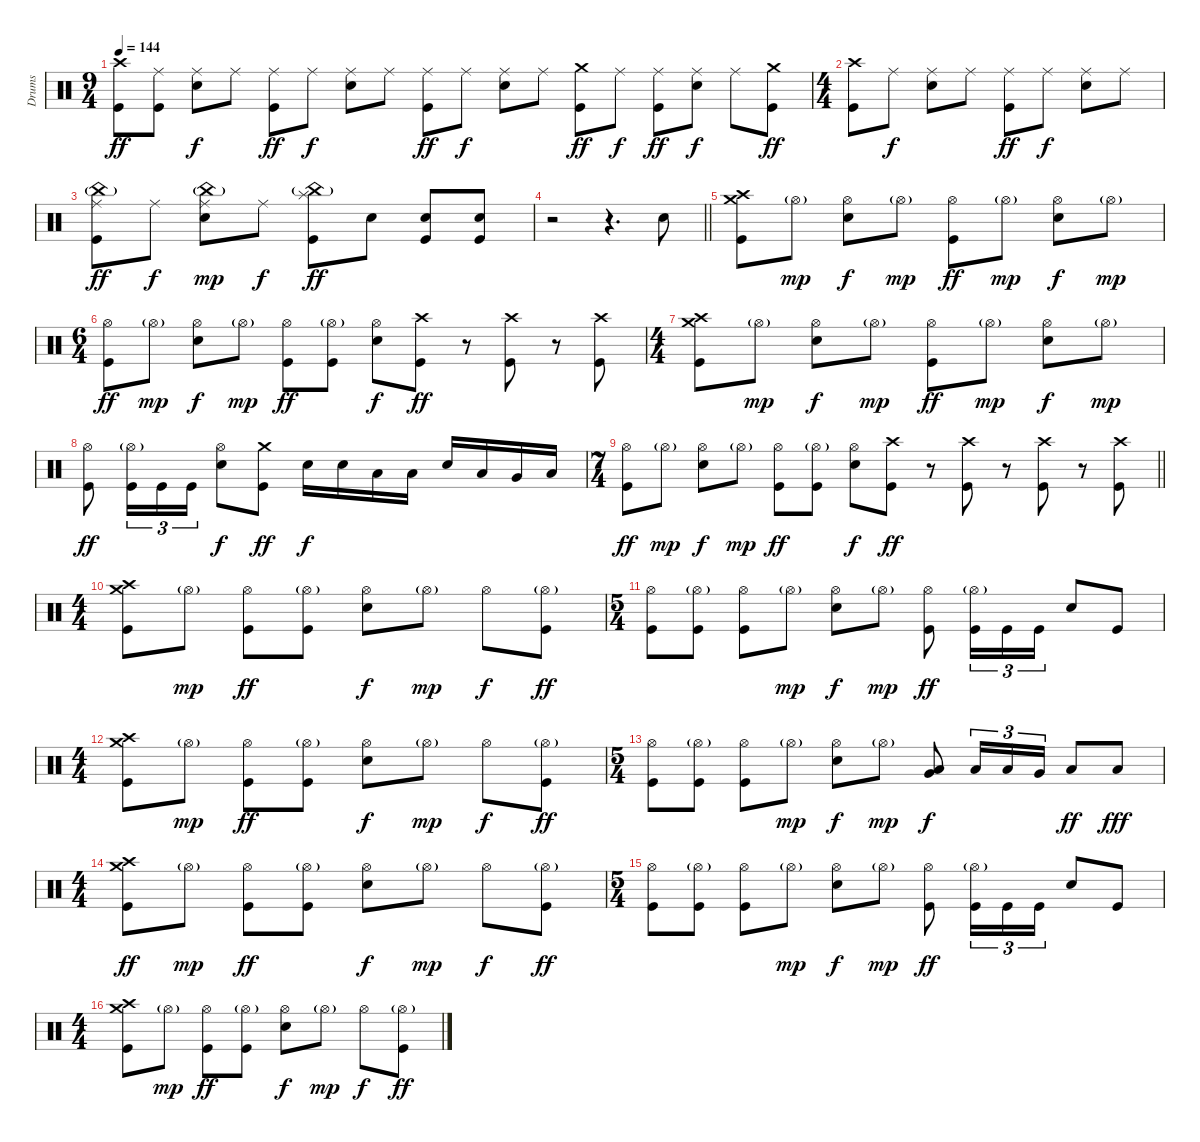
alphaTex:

\track ("Drums" "Drums") {instrument percussion}
\staff {score}
\articulation defaults
\ts (9 4)
\tempo 144
\clef neutral
\ks c
("Crash high (hit)" "Kick (hit)").8{dy ff} ("Ride (middle)" "Kick (hit)").8 ("Ride (middle)" "Snare (hit) 2").8{dy f} "Ride (middle)".8 ("Ride (middle)" "Kick (hit)").8{dy ff} "Ride (middle)".8{dy f} ("Ride (middle)" "Snare (hit) 2").8 "Ride (middle)".8 ("Ride (middle)" "Kick (hit)").8{dy ff} "Ride (middle)".8{dy f} ("Ride (middle)" "Snare (hit) 2").8 "Ride (middle)".8 ("Crash medium (hit)" "Kick (hit)").8{dy ff} "Ride (middle)".8{dy f} ("Ride (middle)" "Kick (hit)").8{dy ff} ("Ride (middle)" "Snare (hit) 2").8{dy f} "Ride (middle)".8 ("Crash medium (hit)" "Kick (hit)").8{dy ff} |
\ts (4 4)
("Crash high (hit)" "Kick (hit)").8 "Ride (middle)".8{dy f} ("Ride (middle)" "Snare (hit) 2").8 "Ride (middle)".8 ("Ride (middle)" "Kick (hit)").8{dy ff} "Ride (middle)".8{dy f} ("Ride (middle)" "Snare (hit) 2").8 "Ride (middle)".8 |
("Ride (middle)" "China (hit)"{g} "Kick (hit)").8{dy ff} "Ride (middle)".8{dy f} ("Ride (middle)" "China (hit)"{g} "Snare (hit) 2").8{dy mp} "Ride (middle)".8{dy f} ("Splash (hit)" "China (hit)"{g} "Kick (hit)").8{dy ff} "Snare (hit) 2".8 ("Snare (hit) 2" "Kick (hit)").8 ("Snare (hit) 2" "Kick (hit)").8 |
\barLineRight lightlight
r.2 r.4{d} "Snare (hit) 2".8 |
("Crash high (hit)" "Crash medium (hit)" "Kick (hit)").8 "Hi-Hat (open)"{g}.8{dy mp} ("Hi-Hat (open)" "Snare (hit) 2").8{dy f} "Hi-Hat (open)"{g}.8{dy mp} ("Hi-Hat (open)" "Kick (hit)").8{dy ff} "Hi-Hat (open)"{g}.8{dy mp} ("Hi-Hat (open)" "Snare (hit) 2").8{dy f} "Hi-Hat (open)"{g}.8{dy mp} |
\ts (6 4)
("Hi-Hat (open)" "Kick (hit)").8{dy ff} "Hi-Hat (open)"{g}.8{dy mp} ("Hi-Hat (open)" "Snare (hit) 2").8{dy f} "Hi-Hat (open)"{g}.8{dy mp} ("Hi-Hat (open)" "Kick (hit)").8{dy ff} ("Hi-Hat (open)"{g} "Kick (hit)").8 ("Hi-Hat (open)" "Snare (hit) 2").8{dy f} ("Crash high (hit)" "Kick (hit)").8{dy ff} r.8 ("Crash high (hit)" "Kick (hit)").8 r.8 ("Crash high (hit)" "Kick (hit)").8 |
\ts (4 4)
("Crash high (hit)" "Crash medium (hit)" "Kick (hit)").8 "Hi-Hat (open)"{g}.8{dy mp} ("Hi-Hat (open)" "Snare (hit) 2").8{dy f} "Hi-Hat (open)"{g}.8{dy mp} ("Hi-Hat (open)" "Kick (hit)").8{dy ff} "Hi-Hat (open)"{g}.8{dy mp} ("Hi-Hat (open)" "Snare (hit) 2").8{dy f} "Hi-Hat (open)"{g}.8{dy mp} |
("Hi-Hat (open)" "Kick (hit)").8{dy ff} ("Hi-Hat (open)"{g} "Kick (hit)").16{tu (3 2)} "Kick (hit)".16{tu (3 2)} "Kick (hit)".16{tu (3 2)} ("Hi-Hat (open)" "Snare (hit) 2").8{dy f} ("Crash medium (hit)" "Kick (hit)").8{dy ff} "Snare (hit) 2".16{dy f} "Snare (hit) 2".16 "Low Tom (hit)".16 "Low Tom (hit)".16 "Snare (hit) 2".16 "Low Tom (hit)".16 "Very Low Tom (hit)".16 "Low Floor Tom (hit)".16 |
\ts (7 4)
\barLineRight lightlight
("Hi-Hat (open)" "Kick (hit)").8{dy ff} "Hi-Hat (open)"{g}.8{dy mp} ("Hi-Hat (open)" "Snare (hit) 2").8{dy f} "Hi-Hat (open)"{g}.8{dy mp} ("Hi-Hat (open)" "Kick (hit)").8{dy ff} ("Hi-Hat (open)"{g} "Kick (hit)").8 ("Hi-Hat (open)" "Snare (hit) 2").8{dy f} ("Crash high (hit)" "Kick (hit)").8{dy ff} r.8 ("Crash high (hit)" "Kick (hit)").8 r.8 ("Crash high (hit)" "Kick (hit)").8 r.8 ("Crash high (hit)" "Kick (hit)").8 |
\ts (4 4)
("Crash medium (hit)" "Crash high (hit)" "Kick (hit)").8 "Hi-Hat (open)"{g}.8{dy mp} ("Hi-Hat (open)" "Kick (hit)").8{dy ff} ("Hi-Hat (open)"{g} "Kick (hit)").8 ("Hi-Hat (open)" "Snare (hit) 2").8{dy f} "Hi-Hat (open)"{g}.8{dy mp} "Hi-Hat (open)".8{dy f} ("Hi-Hat (open)"{g} "Kick (hit)").8{dy ff} |
\ts (5 4)
("Hi-Hat (open)" "Kick (hit)").8 ("Hi-Hat (open)"{g} "Kick (hit)").8 ("Hi-Hat (open)" "Kick (hit)").8 "Hi-Hat (open)"{g}.8{dy mp} ("Hi-Hat (open)" "Snare (hit) 2").8{dy f} "Hi-Hat (open)"{g}.8{dy mp} ("Hi-Hat (open)" "Kick (hit)").8{dy ff} ("Hi-Hat (open)"{g} "Kick (hit)").16{tu (3 2)} "Kick (hit)".16{tu (3 2)} "Kick (hit)".16{tu (3 2)} "Snare (hit) 2".8 "Kick (hit)".8 |
\ts (4 4)
("Crash medium (hit)" "Crash high (hit)" "Kick (hit)").8 "Hi-Hat (open)"{g}.8{dy mp} ("Hi-Hat (open)" "Kick (hit)").8{dy ff} ("Hi-Hat (open)"{g} "Kick (hit)").8 ("Hi-Hat (open)" "Snare (hit) 2").8{dy f} "Hi-Hat (open)"{g}.8{dy mp} "Hi-Hat (open)".8{dy f} ("Hi-Hat (open)"{g} "Kick (hit)").8{dy ff} |
\ts (5 4)
("Hi-Hat (open)" "Kick (hit)").8 ("Hi-Hat (open)"{g} "Kick (hit)").8 ("Hi-Hat (open)" "Kick (hit)").8 "Hi-Hat (open)"{g}.8{dy mp} ("Hi-Hat (open)" "Snare (hit) 2").8{dy f} "Hi-Hat (open)"{g}.8{dy mp} ("Low Tom (hit)" "Very Low Tom (hit)").8{dy f} "Low Tom (hit)".16{tu (3 2)} "Low Tom (hit)".16{tu (3 2)} "Very Low Tom (hit)".16{tu (3 2)} "Low Floor Tom (hit)".8{dy ff} "Low Floor Tom (hit)".8{dy fff} |
\ts (4 4)
("Crash medium (hit)" "Crash high (hit)" "Kick (hit)").8{dy ff} "Hi-Hat (open)"{g}.8{dy mp} ("Hi-Hat (open)" "Kick (hit)").8{dy ff} ("Hi-Hat (open)"{g} "Kick (hit)").8 ("Hi-Hat (open)" "Snare (hit) 2").8{dy f} "Hi-Hat (open)"{g}.8{dy mp} "Hi-Hat (open)".8{dy f} ("Hi-Hat (open)"{g} "Kick (hit)").8{dy ff} |
\ts (5 4)
("Hi-Hat (open)" "Kick (hit)").8 ("Hi-Hat (open)"{g} "Kick (hit)").8 ("Hi-Hat (open)" "Kick (hit)").8 "Hi-Hat (open)"{g}.8{dy mp} ("Hi-Hat (open)" "Snare (hit) 2").8{dy f} "Hi-Hat (open)"{g}.8{dy mp} ("Hi-Hat (open)" "Kick (hit)").8{dy ff} ("Hi-Hat (open)"{g} "Kick (hit)").16{tu (3 2)} "Kick (hit)".16{tu (3 2)} "Kick (hit)".16{tu (3 2)} "Snare (hit) 2".8 "Kick (hit)".8 |
\ts (4 4)
("Crash medium (hit)" "Crash high (hit)" "Kick (hit)").8 "Hi-Hat (open)"{g}.8{dy mp} ("Hi-Hat (open)" "Kick (hit)").8{dy ff} ("Hi-Hat (open)"{g} "Kick (hit)").8 ("Hi-Hat (open)" "Snare (hit) 2").8{dy f} "Hi-Hat (open)"{g}.8{dy mp} "Hi-Hat (open)".8{dy f} ("Hi-Hat (open)"{g} "Kick (hit)").8{dy ff}
